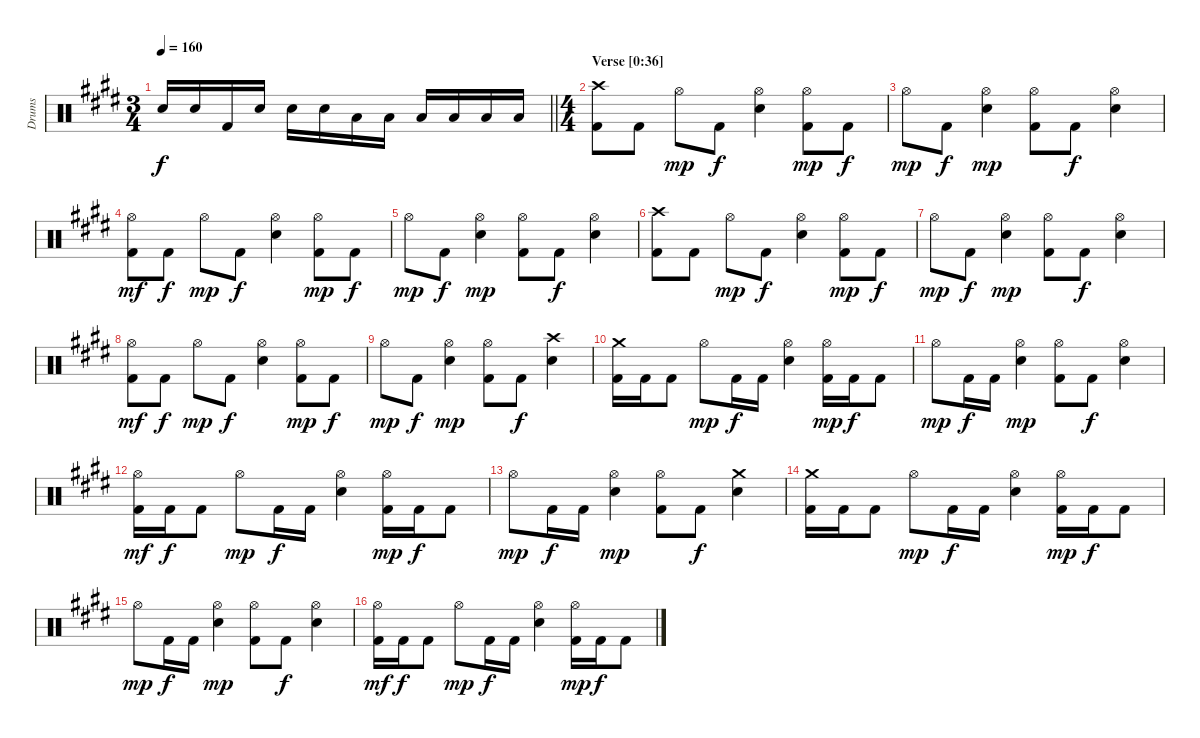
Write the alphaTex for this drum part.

\track ("Drums" "Drums") {instrument percussion}
\staff {score}
\articulation defaults
\ts (3 4)
\tempo 160
\clef neutral
\barLineRight lightlight
\ks c#minor "Snare (hit) 2".16{dy f} "Snare (hit) 2".16 "Kick (hit) 2".16 "Snare (hit) 2".16 "Snare (hit) 2".16 "Snare (hit) 2".16 "Low Tom (hit)".16 "Low Tom (hit)".16 "Low Tom (hit)".16 "Low Tom (hit)".16 "Low Tom (hit)".16 "Low Tom (hit)".16
|
\ts (4 4)
\section ("" "Verse [0:36]")
("Crash high (hit)" "Kick (hit) 2").8 "Kick (hit) 2".8 "Hi-Hat (open)".8{dy mp} "Kick (hit) 2".8{dy f} ("Hi-Hat (open)" "Snare (hit) 2").4 ("Hi-Hat (open)" "Kick (hit) 2").8{dy mp} "Kick (hit) 2".8{dy f} |
"Hi-Hat (open)".8{dy mp} "Kick (hit) 2".8{dy f} ("Hi-Hat (open)" "Snare (hit) 2").4{dy mp} ("Hi-Hat (open)" "Kick (hit) 2").8 "Kick (hit) 2".8{dy f} ("Hi-Hat (open)" "Snare (hit) 2").4 |
("Hi-Hat (open)" "Kick (hit) 2").8{dy mf} "Kick (hit) 2".8{dy f} "Hi-Hat (open)".8{dy mp} "Kick (hit) 2".8{dy f} ("Hi-Hat (open)" "Snare (hit) 2").4 ("Hi-Hat (open)" "Kick (hit) 2").8{dy mp} "Kick (hit) 2".8{dy f} |
"Hi-Hat (open)".8{dy mp} "Kick (hit) 2".8{dy f} ("Hi-Hat (open)" "Snare (hit) 2").4{dy mp} ("Hi-Hat (open)" "Kick (hit) 2").8 "Kick (hit) 2".8{dy f} ("Hi-Hat (open)" "Snare (hit) 2").4 |
("Crash high (hit)" "Kick (hit) 2").8 "Kick (hit) 2".8 "Hi-Hat (open)".8{dy mp} "Kick (hit) 2".8{dy f} ("Hi-Hat (open)" "Snare (hit) 2").4 ("Hi-Hat (open)" "Kick (hit) 2").8{dy mp} "Kick (hit) 2".8{dy f} |
"Hi-Hat (open)".8{dy mp} "Kick (hit) 2".8{dy f} ("Hi-Hat (open)" "Snare (hit) 2").4{dy mp} ("Hi-Hat (open)" "Kick (hit) 2").8 "Kick (hit) 2".8{dy f} ("Hi-Hat (open)" "Snare (hit) 2").4 |
("Hi-Hat (open)" "Kick (hit) 2").8{dy mf} "Kick (hit) 2".8{dy f} "Hi-Hat (open)".8{dy mp} "Kick (hit) 2".8{dy f} ("Hi-Hat (open)" "Snare (hit) 2").4 ("Hi-Hat (open)" "Kick (hit) 2").8{dy mp} "Kick (hit) 2".8{dy f} |
"Hi-Hat (open)".8{dy mp} "Kick (hit) 2".8{dy f} ("Hi-Hat (open)" "Snare (hit) 2").4{dy mp} ("Hi-Hat (open)" "Kick (hit) 2").8 "Kick (hit) 2".8{dy f} ("Crash high (hit)" "Snare (hit) 2").4 |
("Crash medium (hit)" "Kick (hit) 2").16 "Kick (hit) 2".16 "Kick (hit) 2".8 "Hi-Hat (open)".8{dy mp} "Kick (hit) 2".16{dy f} "Kick (hit) 2".16 ("Hi-Hat (open)" "Snare (hit) 2").4 ("Hi-Hat (open)" "Kick (hit) 2").16{dy mp} "Kick (hit) 2".16{dy f} "Kick (hit) 2".8 |
"Hi-Hat (open)".8{dy mp} "Kick (hit) 2".16{dy f} "Kick (hit) 2".16 ("Hi-Hat (open)" "Snare (hit) 2").4{dy mp} ("Hi-Hat (open)" "Kick (hit) 2").8 "Kick (hit) 2".8{dy f} ("Hi-Hat (open)" "Snare (hit) 2").4 |
("Hi-Hat (open)" "Kick (hit) 2").16{dy mf} "Kick (hit) 2".16{dy f} "Kick (hit) 2".8 "Hi-Hat (open)".8{dy mp} "Kick (hit) 2".16{dy f} "Kick (hit) 2".16 ("Hi-Hat (open)" "Snare (hit) 2").4 ("Hi-Hat (open)" "Kick (hit) 2").16{dy mp} "Kick (hit) 2".16{dy f} "Kick (hit) 2".8 |
"Hi-Hat (open)".8{dy mp} "Kick (hit) 2".16{dy f} "Kick (hit) 2".16 ("Hi-Hat (open)" "Snare (hit) 2").4{dy mp} ("Hi-Hat (open)" "Kick (hit) 2").8 "Kick (hit) 2".8{dy f} ("Crash medium (hit)" "Snare (hit) 2").4 |
("Crash medium (hit)" "Kick (hit) 2").16 "Kick (hit) 2".16 "Kick (hit) 2".8 "Hi-Hat (open)".8{dy mp} "Kick (hit) 2".16{dy f} "Kick (hit) 2".16 ("Hi-Hat (open)" "Snare (hit) 2").4 ("Hi-Hat (open)" "Kick (hit) 2").16{dy mp} "Kick (hit) 2".16{dy f} "Kick (hit) 2".8 |
"Hi-Hat (open)".8{dy mp} "Kick (hit) 2".16{dy f} "Kick (hit) 2".16 ("Hi-Hat (open)" "Snare (hit) 2").4{dy mp} ("Hi-Hat (open)" "Kick (hit) 2").8 "Kick (hit) 2".8{dy f} ("Hi-Hat (open)" "Snare (hit) 2").4 |
("Hi-Hat (open)" "Kick (hit) 2").16{dy mf} "Kick (hit) 2".16{dy f} "Kick (hit) 2".8 "Hi-Hat (open)".8{dy mp} "Kick (hit) 2".16{dy f} "Kick (hit) 2".16 ("Hi-Hat (open)" "Snare (hit) 2").4 ("Hi-Hat (open)" "Kick (hit) 2").16{dy mp} "Kick (hit) 2".16{dy f} "Kick (hit) 2".8
